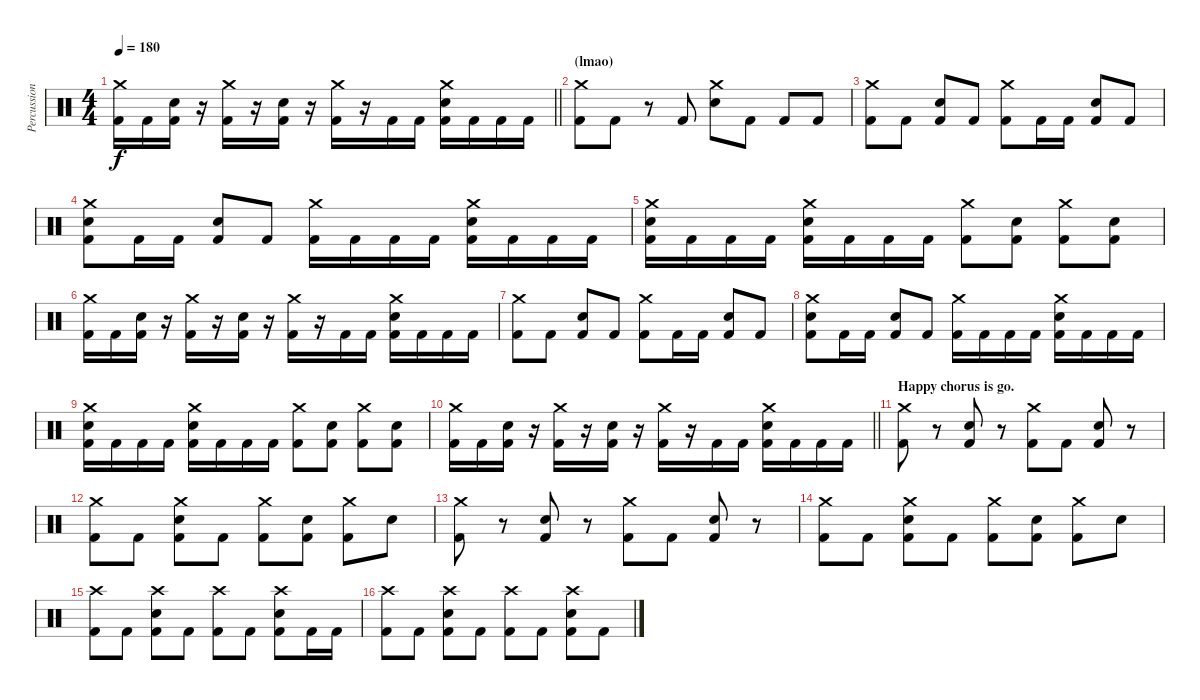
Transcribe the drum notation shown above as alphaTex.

\track ("Percussion" "Percussion") {instrument percussion}
\staff {score}
\articulation defaults
\ts (4 4)
\tempo 180
\clef neutral
\barLineRight lightlight
\ks c
("Crash medium (hit)" "Kick (hit) 2").16{dy f} "Kick (hit) 2".16 ("Electric Snare (hit)" "Kick (hit) 2").16 r.16 ("Crash medium (hit)" "Kick (hit) 2").16 r.16 ("Electric Snare (hit)" "Kick (hit) 2").16 r.16 ("Crash medium (hit)" "Kick (hit) 2").16 r.16 "Kick (hit) 2".16 "Kick (hit) 2".16 ("Crash medium (hit)" "Electric Snare (hit)" "Kick (hit) 2").16 "Kick (hit) 2".16 "Kick (hit) 2".16 "Kick (hit) 2".16 |
\section ("" "(lmao)")
("Crash medium (hit)" "Kick (hit) 2").8 "Kick (hit) 2".8 r.8 "Kick (hit) 2".8 ("Crash medium (hit)" "Electric Snare (hit)").8 "Kick (hit) 2".8 "Kick (hit) 2".8 "Kick (hit) 2".8 |
("Crash medium (hit)" "Kick (hit) 2").8 "Kick (hit) 2".8 ("Electric Snare (hit)" "Kick (hit) 2").8 "Kick (hit) 2".8 ("Crash medium (hit)" "Kick (hit) 2").8 "Kick (hit) 2".16 "Kick (hit) 2".16 ("Electric Snare (hit)" "Kick (hit) 2").8 "Kick (hit) 2".8 |
("Crash medium (hit)" "Electric Snare (hit)" "Kick (hit) 2").8 "Kick (hit) 2".16 "Kick (hit) 2".16 ("Electric Snare (hit)" "Kick (hit) 2").8 "Kick (hit) 2".8 ("Crash medium (hit)" "Kick (hit) 2").16 "Kick (hit) 2".16 "Kick (hit) 2".16 "Kick (hit) 2".16 ("Crash medium (hit)" "Electric Snare (hit)" "Kick (hit) 2").16 "Kick (hit) 2".16 "Kick (hit) 2".16 "Kick (hit) 2".16 |
("Crash medium (hit)" "Electric Snare (hit)" "Kick (hit) 2").16 "Kick (hit) 2".16 "Kick (hit) 2".16 "Kick (hit) 2".16 ("Crash medium (hit)" "Electric Snare (hit)" "Kick (hit) 2").16 "Kick (hit) 2".16 "Kick (hit) 2".16 "Kick (hit) 2".16 ("Crash medium (hit)" "Kick (hit) 2").8 ("Electric Snare (hit)" "Kick (hit) 2").8 ("Crash medium (hit)" "Kick (hit) 2").8 ("Electric Snare (hit)" "Kick (hit) 2").8 |
("Crash medium (hit)" "Kick (hit) 2").16 "Kick (hit) 2".16 ("Electric Snare (hit)" "Kick (hit) 2").16 r.16 ("Crash medium (hit)" "Kick (hit) 2").16 r.16 ("Electric Snare (hit)" "Kick (hit) 2").16 r.16 ("Crash medium (hit)" "Kick (hit) 2").16 r.16 "Kick (hit) 2".16 "Kick (hit) 2".16 ("Crash medium (hit)" "Electric Snare (hit)" "Kick (hit) 2").16 "Kick (hit) 2".16 "Kick (hit) 2".16 "Kick (hit) 2".16 |
("Crash medium (hit)" "Kick (hit) 2").8 "Kick (hit) 2".8 ("Electric Snare (hit)" "Kick (hit) 2").8 "Kick (hit) 2".8 ("Crash medium (hit)" "Kick (hit) 2").8 "Kick (hit) 2".16 "Kick (hit) 2".16 ("Electric Snare (hit)" "Kick (hit) 2").8 "Kick (hit) 2".8 |
("Crash medium (hit)" "Electric Snare (hit)" "Kick (hit) 2").8 "Kick (hit) 2".16 "Kick (hit) 2".16 ("Electric Snare (hit)" "Kick (hit) 2").8 "Kick (hit) 2".8 ("Crash medium (hit)" "Kick (hit) 2").16 "Kick (hit) 2".16 "Kick (hit) 2".16 "Kick (hit) 2".16 ("Crash medium (hit)" "Electric Snare (hit)" "Kick (hit) 2").16 "Kick (hit) 2".16 "Kick (hit) 2".16 "Kick (hit) 2".16 |
("Crash medium (hit)" "Electric Snare (hit)" "Kick (hit) 2").16 "Kick (hit) 2".16 "Kick (hit) 2".16 "Kick (hit) 2".16 ("Crash medium (hit)" "Electric Snare (hit)" "Kick (hit) 2").16 "Kick (hit) 2".16 "Kick (hit) 2".16 "Kick (hit) 2".16 ("Crash medium (hit)" "Kick (hit) 2").8 ("Electric Snare (hit)" "Kick (hit) 2").8 ("Crash medium (hit)" "Kick (hit) 2").8 ("Electric Snare (hit)" "Kick (hit) 2").8 |
\barLineRight lightlight
("Crash medium (hit)" "Kick (hit) 2").16 "Kick (hit) 2".16 ("Electric Snare (hit)" "Kick (hit) 2").16 r.16 ("Crash medium (hit)" "Kick (hit) 2").16 r.16 ("Electric Snare (hit)" "Kick (hit) 2").16 r.16 ("Crash medium (hit)" "Kick (hit) 2").16 r.16 "Kick (hit) 2".16 "Kick (hit) 2".16 ("Crash medium (hit)" "Electric Snare (hit)" "Kick (hit) 2").16 "Kick (hit) 2".16 "Kick (hit) 2".16 "Kick (hit) 2".16 |
\section ("" "Happy chorus is go.")
("Crash medium (hit)" "Kick (hit) 2").8 r.8 ("Electric Snare (hit)" "Kick (hit) 2").8 r.8 ("Crash medium (hit)" "Kick (hit) 2").8 "Kick (hit) 2".8 ("Electric Snare (hit)" "Kick (hit) 2").8 r.8 |
("Crash medium (hit)" "Kick (hit) 2").8 "Kick (hit) 2".8 ("Crash medium (hit)" "Electric Snare (hit)" "Kick (hit) 2").8 "Kick (hit) 2".8 ("Crash medium (hit)" "Kick (hit) 2").8 ("Electric Snare (hit)" "Kick (hit) 2").8 ("Crash medium (hit)" "Kick (hit) 2").8 "Electric Snare (hit)".8 |
("Crash medium (hit)" "Kick (hit) 2").8 r.8 ("Electric Snare (hit)" "Kick (hit) 2").8 r.8 ("Crash medium (hit)" "Kick (hit) 2").8 "Kick (hit) 2".8 ("Electric Snare (hit)" "Kick (hit) 2").8 r.8 |
("Crash medium (hit)" "Kick (hit) 2").8 "Kick (hit) 2".8 ("Crash medium (hit)" "Electric Snare (hit)" "Kick (hit) 2").8 "Kick (hit) 2".8 ("Crash medium (hit)" "Kick (hit) 2").8 ("Electric Snare (hit)" "Kick (hit) 2").8 ("Crash medium (hit)" "Kick (hit) 2").8 "Electric Snare (hit)".8 |
("Crash high (hit)" "Kick (hit) 2").8 "Kick (hit) 2".8 ("Crash high (hit)" "Electric Snare (hit)" "Kick (hit) 2").8 "Kick (hit) 2".8 ("Crash high (hit)" "Kick (hit) 2").8 "Kick (hit) 2".8 ("Crash high (hit)" "Electric Snare (hit)" "Kick (hit) 2").8 "Kick (hit) 2".16 "Kick (hit) 2".16 |
("Crash high (hit)" "Kick (hit) 2").8 "Kick (hit) 2".8 ("Crash high (hit)" "Electric Snare (hit)" "Kick (hit) 2").8 "Kick (hit) 2".8 ("Crash high (hit)" "Kick (hit) 2").8 "Kick (hit) 2".8 ("Crash high (hit)" "Electric Snare (hit)" "Kick (hit) 2").8 "Kick (hit) 2".8
